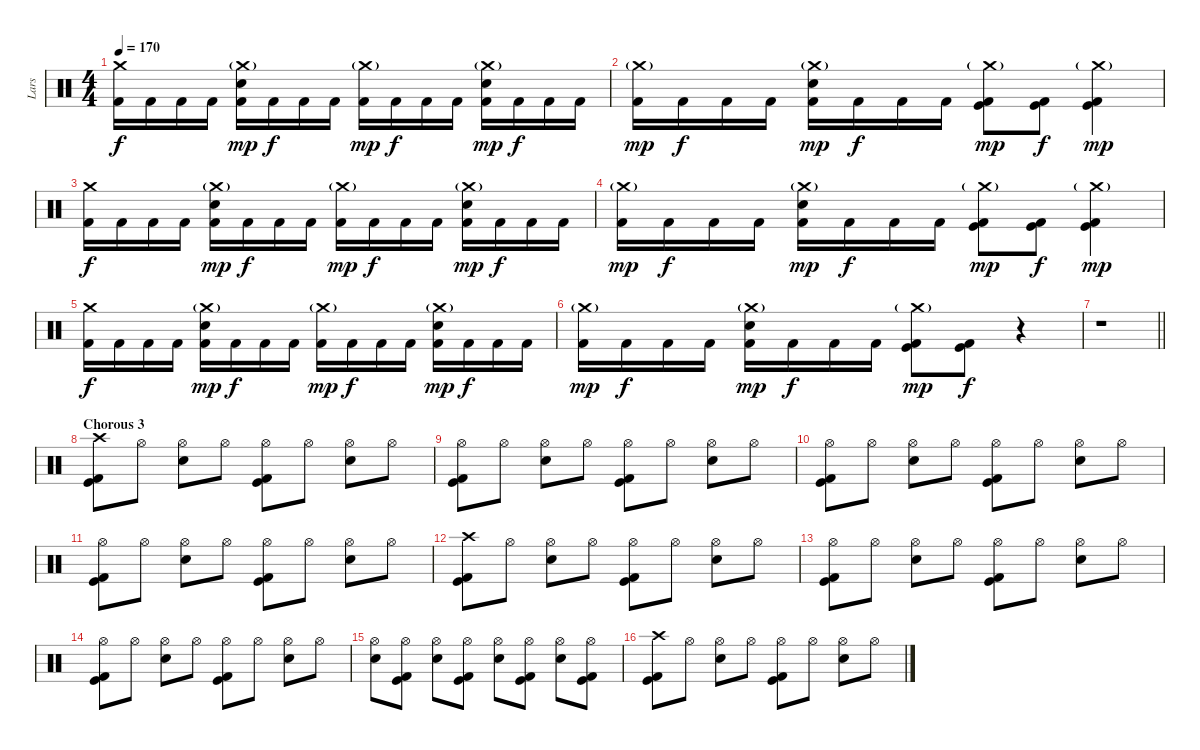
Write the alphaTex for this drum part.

\track ("Lars" "Lars") {instrument percussion}
\staff {score}
\articulation defaults
\ts (4 4)
\tempo 170
\clef neutral
\ks c
("Crash medium (hit)" "Kick (hit) 2").16{dy f} "Kick (hit) 2".16 "Kick (hit) 2".16 "Kick (hit) 2".16 ("Crash medium (hit)"{g} "Electric Snare (hit)" "Kick (hit) 2").16{dy mp} "Kick (hit) 2".16{dy f} "Kick (hit) 2".16 "Kick (hit) 2".16 ("Crash medium (hit)"{g} "Kick (hit) 2").16{dy mp} "Kick (hit) 2".16{dy f} "Kick (hit) 2".16 "Kick (hit) 2".16 ("Crash medium (hit)"{g} "Electric Snare (hit)" "Kick (hit) 2").16{dy mp} "Kick (hit) 2".16{dy f} "Kick (hit) 2".16 "Kick (hit) 2".16 |
("Crash medium (hit)"{g} "Kick (hit) 2").16{dy mp} "Kick (hit) 2".16{dy f} "Kick (hit) 2".16 "Kick (hit) 2".16 ("Crash medium (hit)"{g} "Electric Snare (hit)" "Kick (hit) 2").16{dy mp} "Kick (hit) 2".16{dy f} "Kick (hit) 2".16 "Kick (hit) 2".16 ("Crash medium (hit)"{g} "Kick (hit)" "Kick (hit) 2").8{dy mp} ("Kick (hit)" "Kick (hit) 2").8{dy f} ("Crash medium (hit)"{g} "Kick (hit)" "Kick (hit) 2").4{dy mp} |
("Crash medium (hit)" "Kick (hit) 2").16{dy f} "Kick (hit) 2".16 "Kick (hit) 2".16 "Kick (hit) 2".16 ("Crash medium (hit)"{g} "Electric Snare (hit)" "Kick (hit) 2").16{dy mp} "Kick (hit) 2".16{dy f} "Kick (hit) 2".16 "Kick (hit) 2".16 ("Crash medium (hit)"{g} "Kick (hit) 2").16{dy mp} "Kick (hit) 2".16{dy f} "Kick (hit) 2".16 "Kick (hit) 2".16 ("Crash medium (hit)"{g} "Electric Snare (hit)" "Kick (hit) 2").16{dy mp} "Kick (hit) 2".16{dy f} "Kick (hit) 2".16 "Kick (hit) 2".16 |
("Crash medium (hit)"{g} "Kick (hit) 2").16{dy mp} "Kick (hit) 2".16{dy f} "Kick (hit) 2".16 "Kick (hit) 2".16 ("Crash medium (hit)"{g} "Electric Snare (hit)" "Kick (hit) 2").16{dy mp} "Kick (hit) 2".16{dy f} "Kick (hit) 2".16 "Kick (hit) 2".16 ("Crash medium (hit)"{g} "Kick (hit)" "Kick (hit) 2").8{dy mp} ("Kick (hit)" "Kick (hit) 2").8{dy f} ("Crash medium (hit)"{g} "Kick (hit)" "Kick (hit) 2").4{dy mp} |
("Crash medium (hit)" "Kick (hit) 2").16{dy f} "Kick (hit) 2".16 "Kick (hit) 2".16 "Kick (hit) 2".16 ("Crash medium (hit)"{g} "Electric Snare (hit)" "Kick (hit) 2").16{dy mp} "Kick (hit) 2".16{dy f} "Kick (hit) 2".16 "Kick (hit) 2".16 ("Crash medium (hit)"{g} "Kick (hit) 2").16{dy mp} "Kick (hit) 2".16{dy f} "Kick (hit) 2".16 "Kick (hit) 2".16 ("Crash medium (hit)"{g} "Electric Snare (hit)" "Kick (hit) 2").16{dy mp} "Kick (hit) 2".16{dy f} "Kick (hit) 2".16 "Kick (hit) 2".16 |
("Crash medium (hit)"{g} "Kick (hit) 2").16{dy mp} "Kick (hit) 2".16{dy f} "Kick (hit) 2".16 "Kick (hit) 2".16 ("Crash medium (hit)"{g} "Electric Snare (hit)" "Kick (hit) 2").16{dy mp} "Kick (hit) 2".16{dy f} "Kick (hit) 2".16 "Kick (hit) 2".16 ("Crash medium (hit)"{g} "Kick (hit)" "Kick (hit) 2").8{dy mp} ("Kick (hit)" "Kick (hit) 2").8{dy f} r.4 |
\barLineRight lightlight
r.1 |
\section ("" "Chorous 3")
("Crash high (hit)" "Kick (hit)" "Kick (hit) 2").8 "Hi-Hat (open)".8 ("Hi-Hat (open)" "Electric Snare (hit)").8 "Hi-Hat (open)".8 ("Hi-Hat (open)" "Kick (hit)" "Kick (hit) 2").8 "Hi-Hat (open)".8 ("Hi-Hat (open)" "Electric Snare (hit)").8 "Hi-Hat (open)".8 |
("Hi-Hat (open)" "Kick (hit)" "Kick (hit) 2").8 "Hi-Hat (open)".8 ("Hi-Hat (open)" "Electric Snare (hit)").8 "Hi-Hat (open)".8 ("Hi-Hat (open)" "Kick (hit)" "Kick (hit) 2").8 "Hi-Hat (open)".8 ("Hi-Hat (open)" "Electric Snare (hit)").8 "Hi-Hat (open)".8 |
("Hi-Hat (open)" "Kick (hit)" "Kick (hit) 2").8 "Hi-Hat (open)".8 ("Hi-Hat (open)" "Electric Snare (hit)").8 "Hi-Hat (open)".8 ("Hi-Hat (open)" "Kick (hit)" "Kick (hit) 2").8 "Hi-Hat (open)".8 ("Hi-Hat (open)" "Electric Snare (hit)").8 "Hi-Hat (open)".8 |
("Hi-Hat (open)" "Kick (hit)" "Kick (hit) 2").8 "Hi-Hat (open)".8 ("Hi-Hat (open)" "Electric Snare (hit)").8 "Hi-Hat (open)".8 ("Hi-Hat (open)" "Kick (hit)" "Kick (hit) 2").8 "Hi-Hat (open)".8 ("Hi-Hat (open)" "Electric Snare (hit)").8 "Hi-Hat (open)".8 |
("Crash high (hit)" "Kick (hit)" "Kick (hit) 2").8 "Hi-Hat (open)".8 ("Hi-Hat (open)" "Electric Snare (hit)").8 "Hi-Hat (open)".8 ("Hi-Hat (open)" "Kick (hit)" "Kick (hit) 2").8 "Hi-Hat (open)".8 ("Hi-Hat (open)" "Electric Snare (hit)").8 "Hi-Hat (open)".8 |
("Hi-Hat (open)" "Kick (hit)" "Kick (hit) 2").8 "Hi-Hat (open)".8 ("Hi-Hat (open)" "Electric Snare (hit)").8 "Hi-Hat (open)".8 ("Hi-Hat (open)" "Kick (hit)" "Kick (hit) 2").8 "Hi-Hat (open)".8 ("Hi-Hat (open)" "Electric Snare (hit)").8 "Hi-Hat (open)".8 |
("Hi-Hat (open)" "Kick (hit)" "Kick (hit) 2").8 "Hi-Hat (open)".8 ("Hi-Hat (open)" "Electric Snare (hit)").8 "Hi-Hat (open)".8 ("Hi-Hat (open)" "Kick (hit)" "Kick (hit) 2").8 "Hi-Hat (open)".8 ("Hi-Hat (open)" "Electric Snare (hit)").8 "Hi-Hat (open)".8 |
("Hi-Hat (open)" "Electric Snare (hit)").8 ("Hi-Hat (open)" "Kick (hit)" "Kick (hit) 2").8 ("Hi-Hat (open)" "Electric Snare (hit)").8 ("Hi-Hat (open)" "Kick (hit)" "Kick (hit) 2").8 ("Hi-Hat (open)" "Electric Snare (hit)").8 ("Hi-Hat (open)" "Kick (hit)" "Kick (hit) 2").8 ("Hi-Hat (open)" "Electric Snare (hit)").8 ("Hi-Hat (open)" "Kick (hit)" "Kick (hit) 2").8 |
("Crash high (hit)" "Kick (hit)" "Kick (hit) 2").8 "Hi-Hat (open)".8 ("Hi-Hat (open)" "Electric Snare (hit)").8 "Hi-Hat (open)".8 ("Hi-Hat (open)" "Kick (hit)" "Kick (hit) 2").8 "Hi-Hat (open)".8 ("Hi-Hat (open)" "Electric Snare (hit)").8 "Hi-Hat (open)".8
